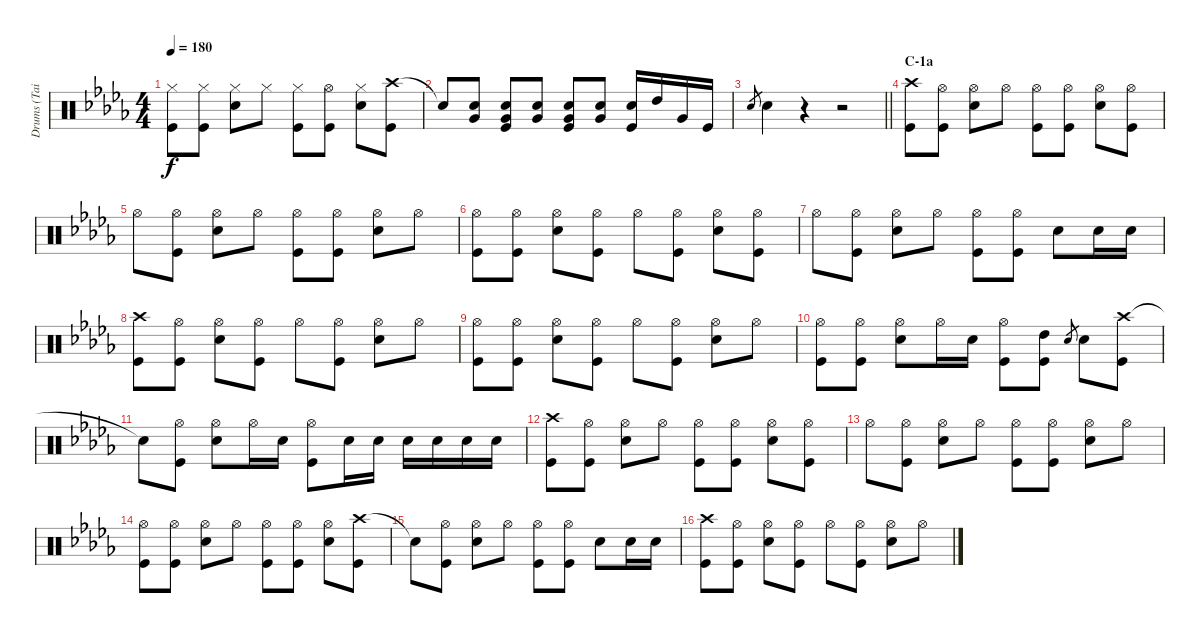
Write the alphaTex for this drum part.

\track ("Drums (Tainaka Ritsu)" "Drums (Tai") {instrument percussion}
\staff {score}
\articulation defaults
\ts (4 4)
\tempo 180
\clef neutral
\ks db
("Hi-Hat (closed)" "Kick (hit)").8{dy f} ("Hi-Hat (closed)" "Kick (hit)").8 ("Hi-Hat (closed)" "Snare (hit) 2").8 "Hi-Hat (closed)".8 ("Hi-Hat (closed)" "Kick (hit)").8 ("Hi-Hat (open)" "Kick (hit)").8 ("Hi-Hat (closed)" "Snare (hit) 2").8 ("Crash high (hit)" "Kick (hit)").8 |
"Snare (hit)"{t}.8 ("Snare (hit) 2" "Very Low Tom (hit)").8 ("Snare (hit) 2" "Very Low Tom (hit)" "Kick (hit)").8 ("Snare (hit) 2" "Very Low Tom (hit)").8 ("Snare (hit) 2" "Very Low Tom (hit)" "Kick (hit)").8 ("Snare (hit) 2" "Very Low Tom (hit)").8 ("Snare (hit) 2" "Kick (hit)").16 "High Tom (hit)".16 "Very Low Tom (hit)".16 "Kick (hit)".16 |
\barLineRight lightlight "Snare (hit) 2".8{gr} "Snare (hit) 2".4
r.4 r.2 |
\section ("" "C-1a")
("Crash high (hit)" "Kick (hit)").8 ("Hi-Hat (open)" "Kick (hit)").8 ("Hi-Hat (open)" "Snare (hit) 2").8 "Hi-Hat (open)".8 ("Hi-Hat (open)" "Kick (hit)").8 ("Hi-Hat (open)" "Kick (hit)").8 ("Hi-Hat (open)" "Snare (hit) 2").8 ("Hi-Hat (open)" "Kick (hit)").8 |
"Hi-Hat (open)".8 ("Hi-Hat (open)" "Kick (hit)").8 ("Hi-Hat (open)" "Snare (hit) 2").8 "Hi-Hat (open)".8 ("Hi-Hat (open)" "Kick (hit)").8 ("Hi-Hat (open)" "Kick (hit)").8 ("Hi-Hat (open)" "Snare (hit) 2").8 "Hi-Hat (open)".8 |
("Hi-Hat (open)" "Kick (hit)").8 ("Hi-Hat (open)" "Kick (hit)").8 ("Hi-Hat (open)" "Snare (hit) 2").8 ("Hi-Hat (open)" "Kick (hit)").8 "Hi-Hat (open)".8 ("Hi-Hat (open)" "Kick (hit)").8 ("Hi-Hat (open)" "Snare (hit) 2").8 ("Hi-Hat (open)" "Kick (hit)").8 |
"Hi-Hat (open)".8 ("Hi-Hat (open)" "Kick (hit)").8 ("Hi-Hat (open)" "Snare (hit) 2").8 "Hi-Hat (open)".8 ("Hi-Hat (open)" "Kick (hit)").8 ("Hi-Hat (open)" "Kick (hit)").8 "Snare (hit) 2".8 "Snare (hit) 2".16 "Snare (hit) 2".16 |
("Crash high (hit)" "Kick (hit)").8 ("Hi-Hat (open)" "Kick (hit)").8 ("Hi-Hat (open)" "Snare (hit) 2").8 ("Hi-Hat (open)" "Kick (hit)").8 "Hi-Hat (open)".8 ("Hi-Hat (open)" "Kick (hit)").8 ("Hi-Hat (open)" "Snare (hit) 2").8 "Hi-Hat (open)".8 |
("Hi-Hat (open)" "Kick (hit)").8 ("Hi-Hat (open)" "Kick (hit)").8 ("Hi-Hat (open)" "Snare (hit) 2").8 ("Hi-Hat (open)" "Kick (hit)").8 "Hi-Hat (open)".8 ("Hi-Hat (open)" "Kick (hit)").8 ("Hi-Hat (open)" "Snare (hit) 2").8 "Hi-Hat (open)".8 |
("Hi-Hat (open)" "Kick (hit)").8 ("Hi-Hat (open)" "Kick (hit)").8 ("Hi-Hat (open)" "Snare (hit) 2").8 "Hi-Hat (open)".16 "Snare (hit) 2".16 ("Hi-Hat (open)" "Kick (hit)").8 ("High Tom (hit)" "Kick (hit)").8 "Snare (hit) 2".8{gr} "Snare (hit) 2".8 ("Crash high (hit)" "Kick (hit)").8 |
"Snare (hit)"{t}.8 ("Hi-Hat (open)" "Kick (hit)").8 ("Hi-Hat (open)" "Snare (hit) 2").8 "Hi-Hat (open)".16 "Snare (hit) 2".16 ("Hi-Hat (open)" "Kick (hit)").8 "Snare (hit) 2".16 "Snare (hit) 2".16 "Snare (hit) 2".16 "Snare (hit) 2".16 "Snare (hit) 2".16 "Snare (hit) 2".16 |
("Crash high (hit)" "Kick (hit)").8 ("Hi-Hat (open)" "Kick (hit)").8 ("Hi-Hat (open)" "Snare (hit) 2").8 "Hi-Hat (open)".8 ("Hi-Hat (open)" "Kick (hit)").8 ("Hi-Hat (open)" "Kick (hit)").8 ("Hi-Hat (open)" "Snare (hit) 2").8 ("Hi-Hat (open)" "Kick (hit)").8 |
"Hi-Hat (open)".8 ("Hi-Hat (open)" "Kick (hit)").8 ("Hi-Hat (open)" "Snare (hit) 2").8 "Hi-Hat (open)".8 ("Hi-Hat (open)" "Kick (hit)").8 ("Hi-Hat (open)" "Kick (hit)").8 ("Hi-Hat (open)" "Snare (hit) 2").8 "Hi-Hat (open)".8 |
("Hi-Hat (open)" "Kick (hit)").8 ("Hi-Hat (open)" "Kick (hit)").8 ("Hi-Hat (open)" "Snare (hit) 2").8 "Hi-Hat (open)".8 ("Hi-Hat (open)" "Kick (hit)").8 ("Hi-Hat (open)" "Kick (hit)").8 ("Hi-Hat (open)" "Snare (hit) 2").8 ("Crash high (hit)" "Kick (hit)").8 |
"Snare (hit)"{t}.8 ("Hi-Hat (open)" "Kick (hit)").8 ("Hi-Hat (open)" "Snare (hit) 2").8 "Hi-Hat (open)".8 ("Hi-Hat (open)" "Kick (hit)").8 ("Hi-Hat (open)" "Kick (hit)").8 "Snare (hit) 2".8 "Snare (hit) 2".16 "Snare (hit) 2".16 |
("Crash high (hit)" "Kick (hit)").8 ("Hi-Hat (open)" "Kick (hit)").8 ("Hi-Hat (open)" "Snare (hit) 2").8 ("Hi-Hat (open)" "Kick (hit)").8 "Hi-Hat (open)".8 ("Hi-Hat (open)" "Kick (hit)").8 ("Hi-Hat (open)" "Snare (hit) 2").8 "Hi-Hat (open)".8
